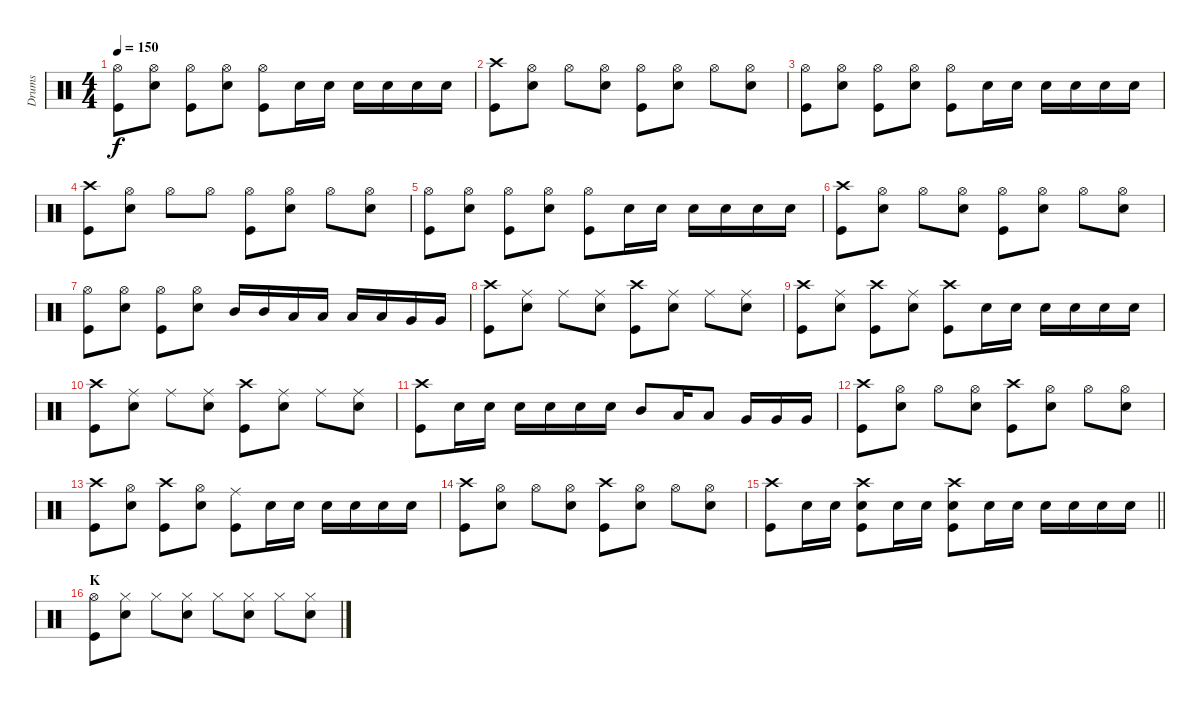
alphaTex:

\track ("Drums" "Drums") {instrument percussion}
\staff {score}
\articulation defaults
\ts (4 4)
\tempo 150
\clef neutral
\ks c
("Hi-Hat (open)" "Kick (hit)").8{dy f} ("Hi-Hat (open)" "Snare (hit) 2").8 ("Hi-Hat (open)" "Kick (hit)").8 ("Hi-Hat (open)" "Snare (hit) 2").8 ("Hi-Hat (open)" "Kick (hit)").8 "Snare (hit) 2".16 "Snare (hit) 2".16 "Snare (hit) 2".16 "Snare (hit) 2".16 "Snare (hit) 2".16 "Snare (hit) 2".16 |
("Crash high (hit)" "Kick (hit)").8 ("Hi-Hat (open)" "Snare (hit) 2").8 "Hi-Hat (open)".8 ("Hi-Hat (open)" "Snare (hit) 2").8 ("Hi-Hat (open)" "Kick (hit)").8 ("Hi-Hat (open)" "Snare (hit) 2").8 "Hi-Hat (open)".8 ("Hi-Hat (open)" "Snare (hit) 2").8 |
("Hi-Hat (open)" "Kick (hit)").8 ("Hi-Hat (open)" "Snare (hit) 2").8 ("Hi-Hat (open)" "Kick (hit)").8 ("Hi-Hat (open)" "Snare (hit) 2").8 ("Hi-Hat (open)" "Kick (hit)").8 "Snare (hit) 2".16 "Snare (hit) 2".16 "Snare (hit) 2".16 "Snare (hit) 2".16 "Snare (hit) 2".16 "Snare (hit) 2".16 |
("Crash high (hit)" "Kick (hit)").8 ("Hi-Hat (open)" "Snare (hit) 2").8 "Hi-Hat (open)".8 "Hi-Hat (open)".8 ("Hi-Hat (open)" "Kick (hit)").8 ("Hi-Hat (open)" "Snare (hit) 2").8 "Hi-Hat (open)".8 ("Hi-Hat (open)" "Snare (hit) 2").8 |
("Hi-Hat (open)" "Kick (hit)").8 ("Hi-Hat (open)" "Snare (hit) 2").8 ("Hi-Hat (open)" "Kick (hit)").8 ("Hi-Hat (open)" "Snare (hit) 2").8 ("Hi-Hat (open)" "Kick (hit)").8 "Snare (hit) 2".16 "Snare (hit) 2".16 "Snare (hit) 2".16 "Snare (hit) 2".16 "Snare (hit) 2".16 "Snare (hit) 2".16 |
("Crash high (hit)" "Kick (hit)").8 ("Hi-Hat (open)" "Snare (hit) 2").8 "Hi-Hat (open)".8 ("Hi-Hat (open)" "Snare (hit) 2").8 ("Hi-Hat (open)" "Kick (hit)").8 ("Hi-Hat (open)" "Snare (hit) 2").8 "Hi-Hat (open)".8 ("Hi-Hat (open)" "Snare (hit) 2").8 |
("Hi-Hat (open)" "Kick (hit)").8 ("Hi-Hat (open)" "Snare (hit) 2").8 ("Hi-Hat (open)" "Kick (hit)").8 ("Hi-Hat (open)" "Snare (hit) 2").8 "Mid Tom (hit)".16 "Mid Tom (hit)".16 "Low Tom (hit)".16 "Low Tom (hit)".16 "Low Tom (hit)".16 "Low Tom (hit)".16 "Very Low Tom (hit)".16 "Very Low Tom (hit)".16 |
("Crash high (hit)" "Kick (hit)").8 ("Ride (middle)" "Snare (hit) 2").8 "Ride (middle)".8 ("Ride (middle)" "Snare (hit) 2").8 ("Crash high (hit)" "Kick (hit)").8 ("Ride (middle)" "Snare (hit) 2").8 "Ride (middle)".8 ("Ride (middle)" "Snare (hit) 2").8 |
("Crash high (hit)" "Kick (hit)").8 ("Ride (middle)" "Snare (hit) 2").8 ("Crash high (hit)" "Kick (hit)").8 ("Ride (middle)" "Snare (hit) 2").8 ("Crash high (hit)" "Kick (hit)").8 "Snare (hit) 2".16 "Snare (hit) 2".16 "Snare (hit) 2".16 "Snare (hit) 2".16 "Snare (hit) 2".16 "Snare (hit) 2".16 |
("Crash high (hit)" "Kick (hit)").8 ("Ride (middle)" "Snare (hit) 2").8 "Ride (middle)".8 ("Ride (middle)" "Snare (hit) 2").8 ("Crash high (hit)" "Kick (hit)").8 ("Ride (middle)" "Snare (hit) 2").8 "Ride (middle)".8 ("Ride (middle)" "Snare (hit) 2").8 |
("Crash high (hit)" "Kick (hit)").8 "Snare (hit) 2".16 "Snare (hit) 2".16 "Snare (hit) 2".16 "Snare (hit) 2".16 "Snare (hit) 2".16 "Snare (hit) 2".16 "Mid Tom (hit)".8 "Low Tom (hit)".16 "Low Tom (hit)".8 "Very Low Tom (hit)".16 "Very Low Tom (hit)".16 "Very Low Tom (hit)".16 |
("Crash high (hit)" "Kick (hit)").8 ("Hi-Hat (open)" "Snare (hit) 2").8 "Hi-Hat (open)".8 ("Hi-Hat (open)" "Snare (hit) 2").8 ("Crash high (hit)" "Kick (hit)").8 ("Hi-Hat (open)" "Snare (hit) 2").8 "Hi-Hat (open)".8 ("Hi-Hat (open)" "Snare (hit) 2").8 |
("Crash high (hit)" "Kick (hit)").8 ("Hi-Hat (open)" "Snare (hit) 2").8 ("Crash high (hit)" "Kick (hit)").8 ("Hi-Hat (open)" "Snare (hit) 2").8 ("Ride (middle)" "Kick (hit)").8 "Snare (hit) 2".16 "Snare (hit) 2".16 "Snare (hit) 2".16 "Snare (hit) 2".16 "Snare (hit) 2".16 "Snare (hit) 2".16 |
("Crash high (hit)" "Kick (hit)").8 ("Hi-Hat (open)" "Snare (hit) 2").8 "Hi-Hat (open)".8 ("Hi-Hat (open)" "Snare (hit) 2").8 ("Crash high (hit)" "Kick (hit)").8 ("Hi-Hat (open)" "Snare (hit) 2").8 "Hi-Hat (open)".8 ("Hi-Hat (open)" "Snare (hit) 2").8 |
\barLineRight lightlight
("Crash high (hit)" "Kick (hit)").8 "Snare (hit) 2".16 "Snare (hit) 2".16 ("Crash high (hit)" "Snare (hit) 2" "Kick (hit)").8 "Snare (hit) 2".16 "Snare (hit) 2".16 ("Crash high (hit)" "Snare (hit) 2" "Kick (hit)").8 "Snare (hit) 2".16 "Snare (hit) 2".16 "Snare (hit) 2".16 "Snare (hit) 2".16 "Snare (hit) 2".16 "Snare (hit) 2".16 |
\section ("" "K")
("Hi-Hat (open)" "Kick (hit)").8 ("Hi-Hat (closed)" "Snare (hit) 2").8 "Hi-Hat (closed)".8 ("Hi-Hat (closed)" "Snare (hit) 2").8 "Hi-Hat (closed)".8 ("Hi-Hat (closed)" "Snare (hit) 2").8 "Hi-Hat (closed)".8 ("Hi-Hat (closed)" "Snare (hit) 2").8
